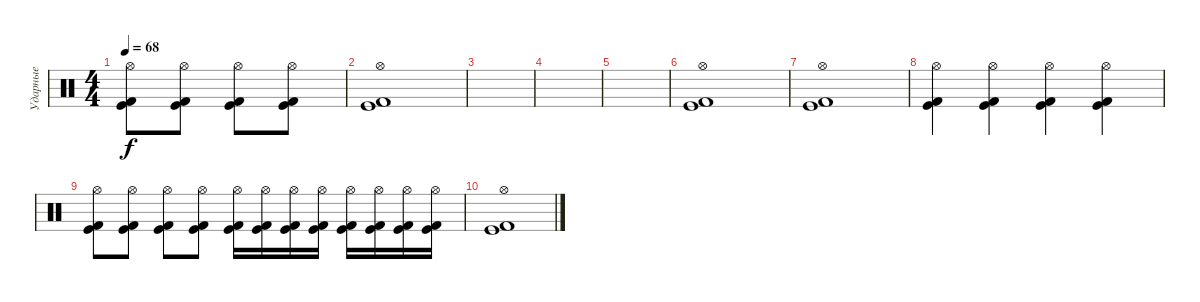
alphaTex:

\track ("Ударные" "Ударные") {instrument percussion}
\staff {score}
\articulation defaults
\ts (4 4)
\tempo 68
\clef neutral
\ks c
("Kick (hit)" "Kick (hit) 2" "Hi-Hat (open)").8{dy f} ("Kick (hit)" "Kick (hit) 2" "Hi-Hat (open)").8 ("Kick (hit)" "Kick (hit) 2" "Hi-Hat (open)").8 ("Kick (hit)" "Kick (hit) 2" "Hi-Hat (open)").8 |
("Kick (hit)" "Kick (hit) 2" "Hi-Hat (open)").1 |
|
|
|
("Kick (hit)" "Kick (hit) 2" "Hi-Hat (open)").1 |
("Kick (hit)" "Kick (hit) 2" "Hi-Hat (open)").1 |
("Kick (hit)" "Kick (hit) 2" "Hi-Hat (open)").4 ("Kick (hit)" "Kick (hit) 2" "Hi-Hat (open)").4 ("Kick (hit)" "Kick (hit) 2" "Hi-Hat (open)").4 ("Kick (hit)" "Kick (hit) 2" "Hi-Hat (open)").4 |
("Kick (hit)" "Kick (hit) 2" "Hi-Hat (open)").8 ("Kick (hit)" "Kick (hit) 2" "Hi-Hat (open)").8 ("Kick (hit)" "Kick (hit) 2" "Hi-Hat (open)").8 ("Kick (hit)" "Kick (hit) 2" "Hi-Hat (open)").8 ("Kick (hit)" "Kick (hit) 2" "Hi-Hat (open)").16 ("Kick (hit)" "Kick (hit) 2" "Hi-Hat (open)").16 ("Kick (hit)" "Kick (hit) 2" "Hi-Hat (open)").16 ("Kick (hit)" "Kick (hit) 2" "Hi-Hat (open)").16 ("Kick (hit)" "Kick (hit) 2" "Hi-Hat (open)").16 ("Kick (hit)" "Kick (hit) 2" "Hi-Hat (open)").16 ("Kick (hit)" "Kick (hit) 2" "Hi-Hat (open)").16 ("Kick (hit)" "Kick (hit) 2" "Hi-Hat (open)").16 |
("Kick (hit)" "Kick (hit) 2" "Hi-Hat (open)").1
